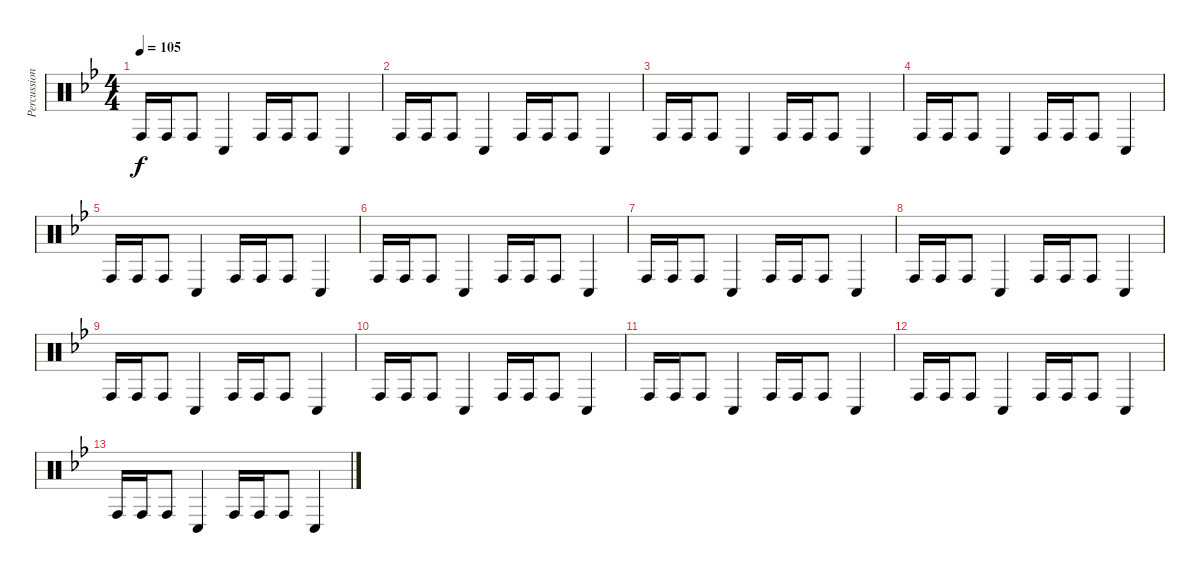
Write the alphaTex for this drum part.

\track ("Percussion" "Percussion") {instrument percussion}
\staff {score}
\articulation defaults
\ts (4 4)
\tempo 105
\clef neutral
\ks bb "Conga high (hit)".16{dy f} "Conga high (hit)".16 "Conga high (hit)".8 "Conga low (hit)".4 "Conga high (hit)".16 "Conga high (hit)".16 "Conga high (hit)".8 "Conga low (hit)".4
|
"Conga high (hit)".16 "Conga high (hit)".16 "Conga high (hit)".8 "Conga low (hit)".4 "Conga high (hit)".16 "Conga high (hit)".16 "Conga high (hit)".8 "Conga low (hit)".4 |
"Conga high (hit)".16 "Conga high (hit)".16 "Conga high (hit)".8 "Conga low (hit)".4 "Conga high (hit)".16 "Conga high (hit)".16 "Conga high (hit)".8 "Conga low (hit)".4 |
"Conga high (hit)".16 "Conga high (hit)".16 "Conga high (hit)".8 "Conga low (hit)".4 "Conga high (hit)".16 "Conga high (hit)".16 "Conga high (hit)".8 "Conga low (hit)".4 |
"Conga high (hit)".16 "Conga high (hit)".16 "Conga high (hit)".8 "Conga low (hit)".4 "Conga high (hit)".16 "Conga high (hit)".16 "Conga high (hit)".8 "Conga low (hit)".4 |
"Conga high (hit)".16 "Conga high (hit)".16 "Conga high (hit)".8 "Conga low (hit)".4 "Conga high (hit)".16 "Conga high (hit)".16 "Conga high (hit)".8 "Conga low (hit)".4 |
"Conga high (hit)".16 "Conga high (hit)".16 "Conga high (hit)".8 "Conga low (hit)".4 "Conga high (hit)".16 "Conga high (hit)".16 "Conga high (hit)".8 "Conga low (hit)".4 |
"Conga high (hit)".16 "Conga high (hit)".16 "Conga high (hit)".8 "Conga low (hit)".4 "Conga high (hit)".16 "Conga high (hit)".16 "Conga high (hit)".8 "Conga low (hit)".4 |
"Conga high (hit)".16 "Conga high (hit)".16 "Conga high (hit)".8 "Conga low (hit)".4 "Conga high (hit)".16 "Conga high (hit)".16 "Conga high (hit)".8 "Conga low (hit)".4 |
"Conga high (hit)".16 "Conga high (hit)".16 "Conga high (hit)".8 "Conga low (hit)".4 "Conga high (hit)".16 "Conga high (hit)".16 "Conga high (hit)".8 "Conga low (hit)".4 |
"Conga high (hit)".16 "Conga high (hit)".16 "Conga high (hit)".8 "Conga low (hit)".4 "Conga high (hit)".16 "Conga high (hit)".16 "Conga high (hit)".8 "Conga low (hit)".4 |
"Conga high (hit)".16 "Conga high (hit)".16 "Conga high (hit)".8 "Conga low (hit)".4 "Conga high (hit)".16 "Conga high (hit)".16 "Conga high (hit)".8 "Conga low (hit)".4 |
"Conga high (hit)".16 "Conga high (hit)".16 "Conga high (hit)".8 "Conga low (hit)".4 "Conga high (hit)".16 "Conga high (hit)".16 "Conga high (hit)".8 "Conga low (hit)".4
